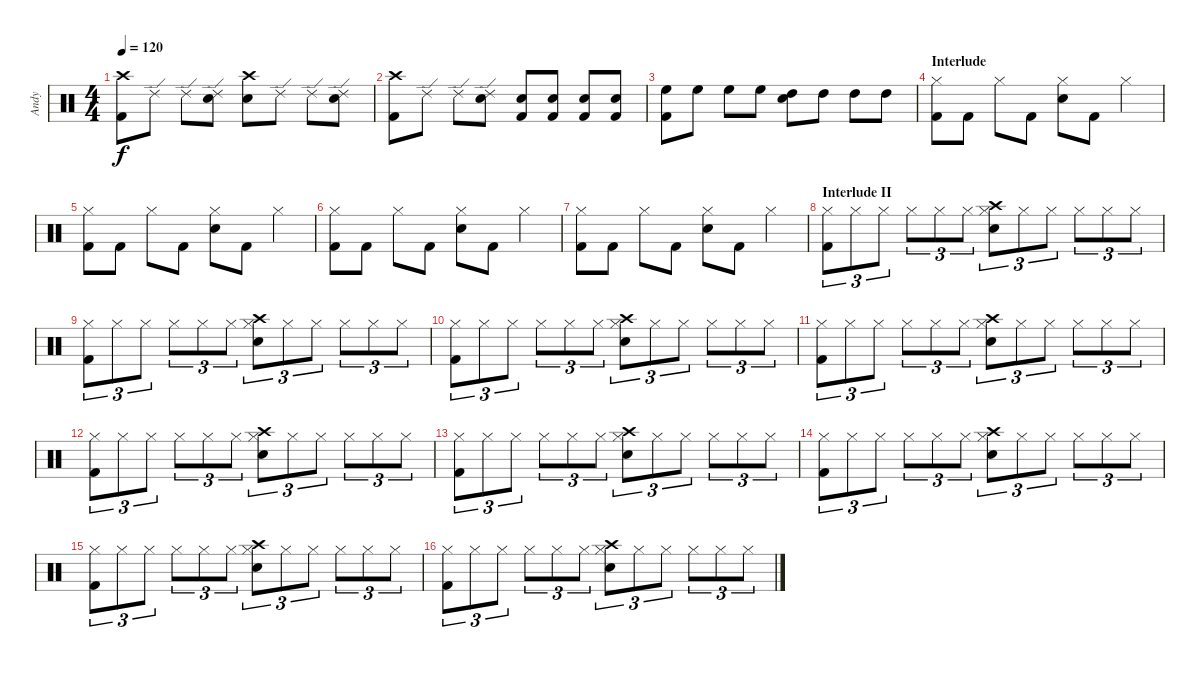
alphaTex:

\track ("Andy" "Andy") {instrument percussion}
\staff {score}
\articulation defaults
\ts (4 4)
\tempo 120
\clef neutral
\ks c
("Crash high (hit)" "Kick (hit) 2").8{dy f} "Ride (edge) 2".8 "Ride (edge) 2".8 ("Ride (edge) 2" "Snare (hit) 2").8 ("Crash high (hit)" "Snare (hit) 2").8 "Ride (edge) 2".8 "Ride (edge) 2".8 ("Ride (edge) 2" "Snare (hit) 2").8 |
("Crash high (hit)" "Kick (hit) 2").8 "Ride (edge) 2".8 "Ride (edge) 2".8 ("Ride (edge) 2" "Snare (hit) 2").8 ("Snare (hit) 2" "Kick (hit) 2").8 ("Snare (hit) 2" "Kick (hit) 2").8 ("Snare (hit) 2" "Kick (hit) 2").8 ("Snare (hit) 2" "Kick (hit) 2").8 |
("High Floor Tom (hit)" "Kick (hit) 2").8 "High Floor Tom (hit)".8 "High Floor Tom (hit)".8 "High Floor Tom (hit)".8 ("High Tom (hit)" "Snare (hit) 2").8 "High Tom (hit)".8 "High Tom (hit)".8 "High Tom (hit)".8 |
\section ("" "Interlude")
("Hi-Hat (closed)" "Kick (hit) 2").8 "Kick (hit) 2".8 "Hi-Hat (closed)".8 "Kick (hit) 2".8 ("Hi-Hat (closed)" "Snare (hit) 2").8 "Kick (hit) 2".8 "Hi-Hat (closed)".4 |
("Hi-Hat (closed)" "Kick (hit) 2").8 "Kick (hit) 2".8 "Hi-Hat (closed)".8 "Kick (hit) 2".8 ("Hi-Hat (closed)" "Snare (hit) 2").8 "Kick (hit) 2".8 "Hi-Hat (closed)".4 |
("Hi-Hat (closed)" "Kick (hit) 2").8 "Kick (hit) 2".8 "Hi-Hat (closed)".8 "Kick (hit) 2".8 ("Hi-Hat (closed)" "Snare (hit) 2").8 "Kick (hit) 2".8 "Hi-Hat (closed)".4 |
("Hi-Hat (closed)" "Kick (hit) 2").8 "Kick (hit) 2".8 "Hi-Hat (closed)".8 "Kick (hit) 2".8 ("Hi-Hat (closed)" "Snare (hit) 2").8 "Kick (hit) 2".8 "Hi-Hat (closed)".4 |
\section ("" "Interlude II")
("Hi-Hat (closed)" "Kick (hit) 2").8{tu (3 2)} "Hi-Hat (closed)".8{tu (3 2)} "Hi-Hat (closed)".8{tu (3 2)} "Hi-Hat (closed)".8{tu (3 2)} "Hi-Hat (closed)".8{tu (3 2)} "Hi-Hat (closed)".8{tu (3 2)} ("Crash high (hit)" "Hi-Hat (closed)" "Snare (hit) 2").8{tu (3 2)} "Hi-Hat (closed)".8{tu (3 2)} "Hi-Hat (closed)".8{tu (3 2)} "Hi-Hat (closed)".8{tu (3 2)} "Hi-Hat (closed)".8{tu (3 2)} "Hi-Hat (closed)".8{tu (3 2)} |
("Hi-Hat (closed)" "Kick (hit) 2").8{tu (3 2)} "Hi-Hat (closed)".8{tu (3 2)} "Hi-Hat (closed)".8{tu (3 2)} "Hi-Hat (closed)".8{tu (3 2)} "Hi-Hat (closed)".8{tu (3 2)} "Hi-Hat (closed)".8{tu (3 2)} ("Crash high (hit)" "Hi-Hat (closed)" "Snare (hit) 2").8{tu (3 2)} "Hi-Hat (closed)".8{tu (3 2)} "Hi-Hat (closed)".8{tu (3 2)} "Hi-Hat (closed)".8{tu (3 2)} "Hi-Hat (closed)".8{tu (3 2)} "Hi-Hat (closed)".8{tu (3 2)} |
("Hi-Hat (closed)" "Kick (hit) 2").8{tu (3 2)} "Hi-Hat (closed)".8{tu (3 2)} "Hi-Hat (closed)".8{tu (3 2)} "Hi-Hat (closed)".8{tu (3 2)} "Hi-Hat (closed)".8{tu (3 2)} "Hi-Hat (closed)".8{tu (3 2)} ("Crash high (hit)" "Hi-Hat (closed)" "Snare (hit) 2").8{tu (3 2)} "Hi-Hat (closed)".8{tu (3 2)} "Hi-Hat (closed)".8{tu (3 2)} "Hi-Hat (closed)".8{tu (3 2)} "Hi-Hat (closed)".8{tu (3 2)} "Hi-Hat (closed)".8{tu (3 2)} |
("Hi-Hat (closed)" "Kick (hit) 2").8{tu (3 2)} "Hi-Hat (closed)".8{tu (3 2)} "Hi-Hat (closed)".8{tu (3 2)} "Hi-Hat (closed)".8{tu (3 2)} "Hi-Hat (closed)".8{tu (3 2)} "Hi-Hat (closed)".8{tu (3 2)} ("Crash high (hit)" "Hi-Hat (closed)" "Snare (hit) 2").8{tu (3 2)} "Hi-Hat (closed)".8{tu (3 2)} "Hi-Hat (closed)".8{tu (3 2)} "Hi-Hat (closed)".8{tu (3 2)} "Hi-Hat (closed)".8{tu (3 2)} "Hi-Hat (closed)".8{tu (3 2)} |
("Hi-Hat (closed)" "Kick (hit) 2").8{tu (3 2)} "Hi-Hat (closed)".8{tu (3 2)} "Hi-Hat (closed)".8{tu (3 2)} "Hi-Hat (closed)".8{tu (3 2)} "Hi-Hat (closed)".8{tu (3 2)} "Hi-Hat (closed)".8{tu (3 2)} ("Crash high (hit)" "Hi-Hat (closed)" "Snare (hit) 2").8{tu (3 2)} "Hi-Hat (closed)".8{tu (3 2)} "Hi-Hat (closed)".8{tu (3 2)} "Hi-Hat (closed)".8{tu (3 2)} "Hi-Hat (closed)".8{tu (3 2)} "Hi-Hat (closed)".8{tu (3 2)} |
("Hi-Hat (closed)" "Kick (hit) 2").8{tu (3 2)} "Hi-Hat (closed)".8{tu (3 2)} "Hi-Hat (closed)".8{tu (3 2)} "Hi-Hat (closed)".8{tu (3 2)} "Hi-Hat (closed)".8{tu (3 2)} "Hi-Hat (closed)".8{tu (3 2)} ("Crash high (hit)" "Hi-Hat (closed)" "Snare (hit) 2").8{tu (3 2)} "Hi-Hat (closed)".8{tu (3 2)} "Hi-Hat (closed)".8{tu (3 2)} "Hi-Hat (closed)".8{tu (3 2)} "Hi-Hat (closed)".8{tu (3 2)} "Hi-Hat (closed)".8{tu (3 2)} |
("Hi-Hat (closed)" "Kick (hit) 2").8{tu (3 2)} "Hi-Hat (closed)".8{tu (3 2)} "Hi-Hat (closed)".8{tu (3 2)} "Hi-Hat (closed)".8{tu (3 2)} "Hi-Hat (closed)".8{tu (3 2)} "Hi-Hat (closed)".8{tu (3 2)} ("Crash high (hit)" "Hi-Hat (closed)" "Snare (hit) 2").8{tu (3 2)} "Hi-Hat (closed)".8{tu (3 2)} "Hi-Hat (closed)".8{tu (3 2)} "Hi-Hat (closed)".8{tu (3 2)} "Hi-Hat (closed)".8{tu (3 2)} "Hi-Hat (closed)".8{tu (3 2)} |
("Hi-Hat (closed)" "Kick (hit) 2").8{tu (3 2)} "Hi-Hat (closed)".8{tu (3 2)} "Hi-Hat (closed)".8{tu (3 2)} "Hi-Hat (closed)".8{tu (3 2)} "Hi-Hat (closed)".8{tu (3 2)} "Hi-Hat (closed)".8{tu (3 2)} ("Crash high (hit)" "Hi-Hat (closed)" "Snare (hit) 2").8{tu (3 2)} "Hi-Hat (closed)".8{tu (3 2)} "Hi-Hat (closed)".8{tu (3 2)} "Hi-Hat (closed)".8{tu (3 2)} "Hi-Hat (closed)".8{tu (3 2)} "Hi-Hat (closed)".8{tu (3 2)} |
("Hi-Hat (closed)" "Kick (hit) 2").8{tu (3 2)} "Hi-Hat (closed)".8{tu (3 2)} "Hi-Hat (closed)".8{tu (3 2)} "Hi-Hat (closed)".8{tu (3 2)} "Hi-Hat (closed)".8{tu (3 2)} "Hi-Hat (closed)".8{tu (3 2)} ("Crash high (hit)" "Hi-Hat (closed)" "Snare (hit) 2").8{tu (3 2)} "Hi-Hat (closed)".8{tu (3 2)} "Hi-Hat (closed)".8{tu (3 2)} "Hi-Hat (closed)".8{tu (3 2)} "Hi-Hat (closed)".8{tu (3 2)} "Hi-Hat (closed)".8{tu (3 2)}
